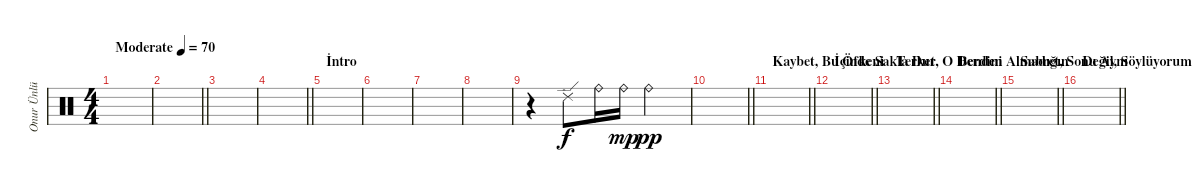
\track ("Onur Ünlü - Davul" "Onur Ünlü ") {instrument percussion}
\staff {score}
\articulation defaults
\ts (4 4)
\tempo (70 "Moderate")
\clef neutral
\ks c
|
\barLineRight lightlight
|
\section ("" "")
|
\barLineRight lightlight
|
\section ("" "İntro")
|
|
|
|
r.4 "Ride (edge) 2".8 "Ride (bell)".16 "Ride (bell)".16{dy mp} "Ride (bell)".2{dy pp} |
\barLineRight lightlight
|
\section ("" "Kaybet, Bu Öfkeni")
\barLineRight lightlight
|
\section ("" "İçinde Sakla Dur")
\barLineRight lightlight
|
\section ("" "Terket, O Derdini")
\barLineRight lightlight
|
\section ("" "Benden Almadığın")
\barLineRight lightlight
|
\section ("" "Sabret, Sonu Aynı")
\barLineRight lightlight
|
\section ("" "Değil, Söylüyorum")
\barLineRight lightlight
